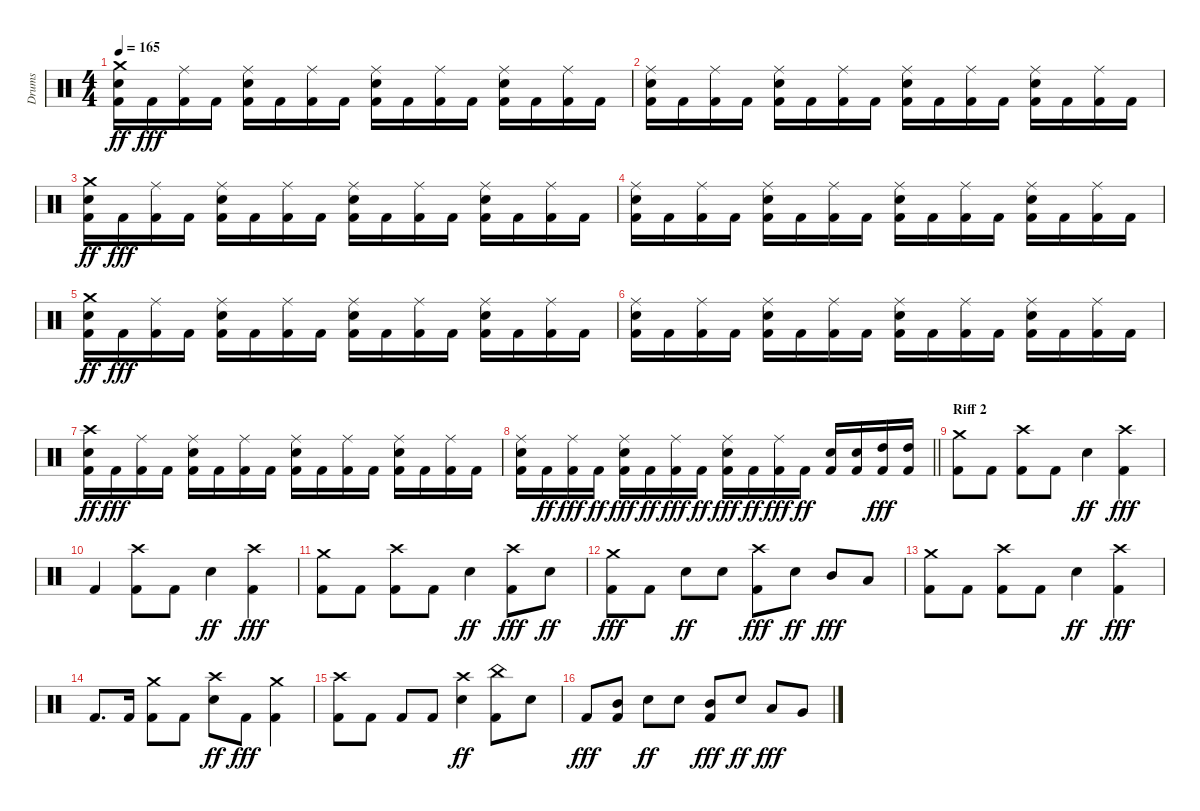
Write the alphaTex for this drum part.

\track ("Drums" "Drums") {instrument percussion}
\staff {score}
\articulation defaults
\ts (4 4)
\tempo 165
\clef neutral
\ks c
("Kick (hit) 2" "Snare (hit) 2" "Crash medium (hit)").16{dy ff} "Kick (hit) 2".16{dy fff} ("Kick (hit) 2" "Ride (middle)").16 "Kick (hit) 2".16 ("Kick (hit) 2" "Snare (hit) 2" "Ride (middle)").16 "Kick (hit) 2".16 ("Kick (hit) 2" "Ride (middle)").16 "Kick (hit) 2".16 ("Kick (hit) 2" "Snare (hit) 2" "Ride (middle)").16 "Kick (hit) 2".16 ("Kick (hit) 2" "Ride (middle)").16 "Kick (hit) 2".16 ("Kick (hit) 2" "Snare (hit) 2" "Ride (middle)").16 "Kick (hit) 2".16 ("Kick (hit) 2" "Ride (middle)").16 "Kick (hit) 2".16 |
("Kick (hit) 2" "Snare (hit) 2" "Ride (middle)").16 "Kick (hit) 2".16 ("Kick (hit) 2" "Ride (middle)").16 "Kick (hit) 2".16 ("Kick (hit) 2" "Snare (hit) 2" "Ride (middle)").16 "Kick (hit) 2".16 ("Kick (hit) 2" "Ride (middle)").16 "Kick (hit) 2".16 ("Kick (hit) 2" "Snare (hit) 2" "Ride (middle)").16 "Kick (hit) 2".16 ("Kick (hit) 2" "Ride (middle)").16 "Kick (hit) 2".16 ("Kick (hit) 2" "Snare (hit) 2" "Ride (middle)").16 "Kick (hit) 2".16 ("Kick (hit) 2" "Ride (middle)").16 "Kick (hit) 2".16 |
("Kick (hit) 2" "Snare (hit) 2" "Crash medium (hit)").16{dy ff} "Kick (hit) 2".16{dy fff} ("Kick (hit) 2" "Ride (middle)").16 "Kick (hit) 2".16 ("Kick (hit) 2" "Snare (hit) 2" "Ride (middle)").16 "Kick (hit) 2".16 ("Kick (hit) 2" "Ride (middle)").16 "Kick (hit) 2".16 ("Kick (hit) 2" "Snare (hit) 2" "Ride (middle)").16 "Kick (hit) 2".16 ("Kick (hit) 2" "Ride (middle)").16 "Kick (hit) 2".16 ("Kick (hit) 2" "Snare (hit) 2" "Ride (middle)").16 "Kick (hit) 2".16 ("Kick (hit) 2" "Ride (middle)").16 "Kick (hit) 2".16 |
("Kick (hit) 2" "Snare (hit) 2" "Ride (middle)").16 "Kick (hit) 2".16 ("Kick (hit) 2" "Ride (middle)").16 "Kick (hit) 2".16 ("Kick (hit) 2" "Snare (hit) 2" "Ride (middle)").16 "Kick (hit) 2".16 ("Kick (hit) 2" "Ride (middle)").16 "Kick (hit) 2".16 ("Kick (hit) 2" "Snare (hit) 2" "Ride (middle)").16 "Kick (hit) 2".16 ("Kick (hit) 2" "Ride (middle)").16 "Kick (hit) 2".16 ("Kick (hit) 2" "Snare (hit) 2" "Ride (middle)").16 "Kick (hit) 2".16 ("Kick (hit) 2" "Ride (middle)").16 "Kick (hit) 2".16 |
("Kick (hit) 2" "Snare (hit) 2" "Crash medium (hit)").16{dy ff} "Kick (hit) 2".16{dy fff} ("Kick (hit) 2" "Ride (middle)").16 "Kick (hit) 2".16 ("Kick (hit) 2" "Snare (hit) 2" "Ride (middle)").16 "Kick (hit) 2".16 ("Kick (hit) 2" "Ride (middle)").16 "Kick (hit) 2".16 ("Kick (hit) 2" "Snare (hit) 2" "Ride (middle)").16 "Kick (hit) 2".16 ("Kick (hit) 2" "Ride (middle)").16 "Kick (hit) 2".16 ("Kick (hit) 2" "Snare (hit) 2" "Ride (middle)").16 "Kick (hit) 2".16 ("Kick (hit) 2" "Ride (middle)").16 "Kick (hit) 2".16 |
("Kick (hit) 2" "Snare (hit) 2" "Ride (middle)").16 "Kick (hit) 2".16 ("Kick (hit) 2" "Ride (middle)").16 "Kick (hit) 2".16 ("Kick (hit) 2" "Snare (hit) 2" "Ride (middle)").16 "Kick (hit) 2".16 ("Kick (hit) 2" "Ride (middle)").16 "Kick (hit) 2".16 ("Kick (hit) 2" "Snare (hit) 2" "Ride (middle)").16 "Kick (hit) 2".16 ("Kick (hit) 2" "Ride (middle)").16 "Kick (hit) 2".16 ("Kick (hit) 2" "Snare (hit) 2" "Ride (middle)").16 "Kick (hit) 2".16 ("Kick (hit) 2" "Ride (middle)").16 "Kick (hit) 2".16 |
("Kick (hit) 2" "Snare (hit) 2" "Crash high (hit)").16{dy ff} "Kick (hit) 2".16{dy fff} ("Kick (hit) 2" "Ride (middle)").16 "Kick (hit) 2".16 ("Kick (hit) 2" "Snare (hit) 2" "Ride (middle)").16 "Kick (hit) 2".16 ("Kick (hit) 2" "Ride (middle)").16 "Kick (hit) 2".16 ("Kick (hit) 2" "Snare (hit) 2" "Ride (middle)").16 "Kick (hit) 2".16 ("Kick (hit) 2" "Ride (middle)").16 "Kick (hit) 2".16 ("Kick (hit) 2" "Snare (hit) 2" "Ride (middle)").16 "Kick (hit) 2".16 ("Kick (hit) 2" "Ride (middle)").16 "Kick (hit) 2".16 |
\barLineRight lightlight
("Kick (hit) 2" "Snare (hit) 2" "Ride (middle)").16 "Kick (hit) 2".16{dy ff} ("Kick (hit) 2" "Ride (middle)").16{dy fff} "Kick (hit) 2".16{dy ff} ("Kick (hit) 2" "Snare (hit) 2" "Ride (middle)").16{dy fff} "Kick (hit) 2".16{dy ff} ("Kick (hit) 2" "Ride (middle)").16{dy fff} "Kick (hit) 2".16{dy ff} ("Kick (hit) 2" "Snare (hit) 2" "Ride (middle)").16{dy fff} "Kick (hit) 2".16{dy ff} ("Kick (hit) 2" "Ride (middle)").16{dy fff} "Kick (hit) 2".16{dy ff} ("Kick (hit) 2" "Snare (hit) 2").16 ("Kick (hit) 2" "Snare (hit) 2").16 ("Kick (hit) 2" "High Tom (hit)").16{dy fff} ("Kick (hit) 2" "High Tom (hit)").16 |
\section ("" "Riff 2")
("Kick (hit) 2" "Crash medium (hit)").8 "Kick (hit) 2".8 ("Kick (hit) 2" "Crash high (hit)").8 "Kick (hit) 2".8 "Snare (hit) 2".4{dy ff} ("Kick (hit) 2" "Crash high (hit)").4{dy fff} |
"Kick (hit) 2".4 ("Kick (hit) 2" "Crash high (hit)").8 "Kick (hit) 2".8 "Snare (hit) 2".4{dy ff} ("Kick (hit) 2" "Crash high (hit)").4{dy fff} |
("Kick (hit) 2" "Crash medium (hit)").8 "Kick (hit) 2".8 ("Kick (hit) 2" "Crash high (hit)").8 "Kick (hit) 2".8 "Snare (hit) 2".4{dy ff} ("Kick (hit) 2" "Crash high (hit)").8{dy fff} "Snare (hit) 2".8{dy ff} |
("Kick (hit) 2" "Crash medium (hit)").8{dy fff} "Kick (hit) 2".8 "Snare (hit) 2".8{dy ff} "Snare (hit) 2".8 ("Kick (hit) 2" "Crash high (hit)").8{dy fff} "Snare (hit) 2".8{dy ff} "Mid Tom (hit)".8{dy fff} "Low Tom (hit)".8 |
("Kick (hit) 2" "Crash medium (hit)").8 "Kick (hit) 2".8 ("Kick (hit) 2" "Crash high (hit)").8 "Kick (hit) 2".8 "Snare (hit) 2".4{dy ff} ("Kick (hit) 2" "Crash high (hit)").4{dy fff} |
"Kick (hit) 2".8{d} "Kick (hit) 2".16 ("Kick (hit) 2" "Crash medium (hit)").8 "Kick (hit) 2".8 ("Snare (hit) 2" "Crash high (hit)").8{dy ff} "Kick (hit) 2".8{dy fff} ("Kick (hit) 2" "Crash medium (hit)").4 |
("Kick (hit) 2" "Crash high (hit)").8 "Kick (hit) 2".8 "Kick (hit) 2".8 "Kick (hit) 2".8 ("Snare (hit) 2" "Crash high (hit)").4{dy ff} ("Kick (hit) 2" "China (hit)").8 "Snare (hit) 2".8 |
"Kick (hit) 2".8{dy fff} ("Kick (hit) 2" "Mid Tom (hit)").8 "Snare (hit) 2".8{dy ff} "Snare (hit) 2".8 ("Kick (hit) 2" "Mid Tom (hit)").8{dy fff} "Snare (hit) 2".8{dy ff} "Low Tom (hit)".8{dy fff} "Very Low Tom (hit)".8
